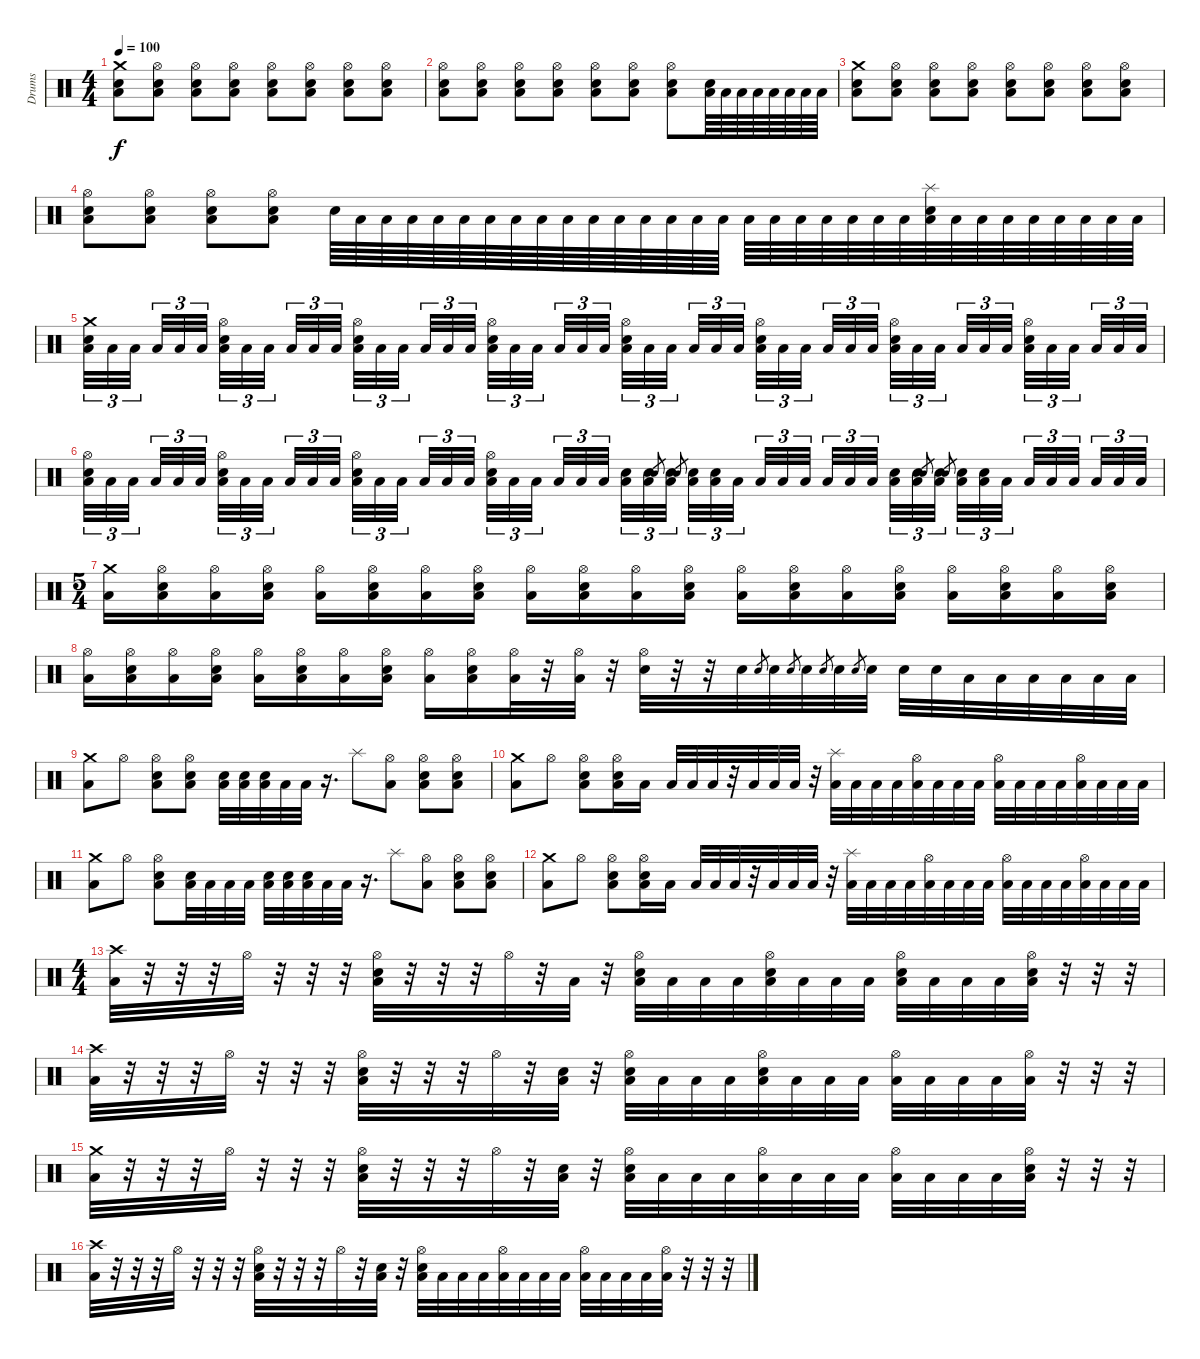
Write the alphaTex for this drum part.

\track ("Drums" "Drums") {instrument percussion}
\staff {score}
\articulation defaults
\ts (4 4)
\tempo 100
\clef neutral
\ks c
("Crash medium (hit)" "Electric Snare (hit)" "Low Floor Tom (hit)").8{dy f} ("Hi-Hat (open)" "Electric Snare (hit)" "Low Floor Tom (hit)").8 ("Hi-Hat (open)" "Electric Snare (hit)" "Low Floor Tom (hit)").8 ("Hi-Hat (open)" "Electric Snare (hit)" "Low Floor Tom (hit)").8 ("Hi-Hat (open)" "Electric Snare (hit)" "Low Floor Tom (hit)").8 ("Hi-Hat (open)" "Electric Snare (hit)" "Low Floor Tom (hit)").8 ("Hi-Hat (open)" "Electric Snare (hit)" "Low Floor Tom (hit)").8 ("Hi-Hat (open)" "Electric Snare (hit)" "Low Floor Tom (hit)").8 |
("Hi-Hat (open)" "Electric Snare (hit)" "Low Floor Tom (hit)").8 ("Hi-Hat (open)" "Electric Snare (hit)" "Low Floor Tom (hit)").8 ("Hi-Hat (open)" "Electric Snare (hit)" "Low Floor Tom (hit)").8 ("Hi-Hat (open)" "Electric Snare (hit)" "Low Floor Tom (hit)").8 ("Hi-Hat (open)" "Electric Snare (hit)" "Low Floor Tom (hit)").8 ("Hi-Hat (open)" "Electric Snare (hit)" "Low Floor Tom (hit)").8 ("Hi-Hat (open)" "Electric Snare (hit)" "Low Floor Tom (hit)").8 ("Electric Snare (hit)" "Low Floor Tom (hit)").64 "Low Floor Tom (hit)".64 "Low Floor Tom (hit)".64 "Low Floor Tom (hit)".64 "Low Floor Tom (hit)".64 "Low Floor Tom (hit)".64 "Low Floor Tom (hit)".64 "Low Floor Tom (hit)".64 |
("Crash medium (hit)" "Electric Snare (hit)" "Low Floor Tom (hit)").8 ("Hi-Hat (open)" "Electric Snare (hit)" "Low Floor Tom (hit)").8 ("Hi-Hat (open)" "Electric Snare (hit)" "Low Floor Tom (hit)").8 ("Hi-Hat (open)" "Electric Snare (hit)" "Low Floor Tom (hit)").8 ("Hi-Hat (open)" "Electric Snare (hit)" "Low Floor Tom (hit)").8 ("Hi-Hat (open)" "Electric Snare (hit)" "Low Floor Tom (hit)").8 ("Hi-Hat (open)" "Electric Snare (hit)" "Low Floor Tom (hit)").8 ("Hi-Hat (open)" "Electric Snare (hit)" "Low Floor Tom (hit)").8 |
("Hi-Hat (open)" "Electric Snare (hit)" "Low Floor Tom (hit)").8 ("Hi-Hat (open)" "Electric Snare (hit)" "Low Floor Tom (hit)").8 ("Hi-Hat (open)" "Electric Snare (hit)" "Low Floor Tom (hit)").8 ("Hi-Hat (open)" "Electric Snare (hit)" "Low Floor Tom (hit)").8 "Electric Snare (hit)".64 "Low Tom (hit)".64 "Low Tom (hit)".64 "Low Floor Tom (hit)".64 "Low Floor Tom (hit)".64 "Low Floor Tom (hit)".64 "Low Floor Tom (hit)".64 "Low Floor Tom (hit)".64 "Low Floor Tom (hit)".64 "Low Floor Tom (hit)".64 "Low Floor Tom (hit)".64 "Low Floor Tom (hit)".64 "Low Floor Tom (hit)".64 "Low Floor Tom (hit)".64 "Low Floor Tom (hit)".64 "Low Floor Tom (hit)".64 "Low Floor Tom (hit)".64 "Low Floor Tom (hit)".64 "Low Floor Tom (hit)".64 "Low Floor Tom (hit)".64 "Low Floor Tom (hit)".64 "Low Floor Tom (hit)".64 "Low Floor Tom (hit)".64 ("Splash (hit)" "Electric Snare (hit)" "Low Floor Tom (hit)").64 "Low Floor Tom (hit)".64 "Low Floor Tom (hit)".64 "Low Floor Tom (hit)".64 "Low Floor Tom (hit)".64 "Low Floor Tom (hit)".64 "Low Floor Tom (hit)".64 "Low Floor Tom (hit)".64 "Low Floor Tom (hit)".64 |
("Crash medium (hit)" "Electric Snare (hit)" "Low Floor Tom (hit)").32{tu (3 2)} "Low Floor Tom (hit)".32{tu (3 2)} "Low Floor Tom (hit)".32{tu (3 2) beam splitsecondary} "Low Floor Tom (hit)".32{tu (3 2)} "Low Floor Tom (hit)".32{tu (3 2)} "Low Floor Tom (hit)".32{tu (3 2) beam splitsecondary} ("Hi-Hat (open)" "Electric Snare (hit)" "Low Floor Tom (hit)").32{tu (3 2)} "Low Floor Tom (hit)".32{tu (3 2)} "Low Floor Tom (hit)".32{tu (3 2) beam splitsecondary} "Low Floor Tom (hit)".32{tu (3 2)} "Low Floor Tom (hit)".32{tu (3 2)} "Low Floor Tom (hit)".32{tu (3 2)} ("Hi-Hat (open)" "Electric Snare (hit)" "Low Floor Tom (hit)").32{tu (3 2)} "Low Floor Tom (hit)".32{tu (3 2)} "Low Floor Tom (hit)".32{tu (3 2) beam splitsecondary} "Low Floor Tom (hit)".32{tu (3 2)} "Low Floor Tom (hit)".32{tu (3 2)} "Low Floor Tom (hit)".32{tu (3 2) beam splitsecondary} ("Hi-Hat (open)" "Electric Snare (hit)" "Low Floor Tom (hit)").32{tu (3 2)} "Low Floor Tom (hit)".32{tu (3 2)} "Low Floor Tom (hit)".32{tu (3 2) beam splitsecondary} "Low Floor Tom (hit)".32{tu (3 2)} "Low Floor Tom (hit)".32{tu (3 2)} "Low Floor Tom (hit)".32{tu (3 2)} ("Hi-Hat (open)" "Electric Snare (hit)" "Low Floor Tom (hit)").32{tu (3 2)} "Low Floor Tom (hit)".32{tu (3 2)} "Low Floor Tom (hit)".32{tu (3 2) beam splitsecondary} "Low Floor Tom (hit)".32{tu (3 2)} "Low Floor Tom (hit)".32{tu (3 2)} "Low Floor Tom (hit)".32{tu (3 2) beam splitsecondary} ("Hi-Hat (open)" "Electric Snare (hit)" "Low Floor Tom (hit)").32{tu (3 2)} "Low Floor Tom (hit)".32{tu (3 2)} "Low Floor Tom (hit)".32{tu (3 2) beam splitsecondary} "Low Floor Tom (hit)".32{tu (3 2)} "Low Floor Tom (hit)".32{tu (3 2)} "Low Floor Tom (hit)".32{tu (3 2)} ("Hi-Hat (open)" "Electric Snare (hit)" "Low Floor Tom (hit)").32{tu (3 2)} "Low Floor Tom (hit)".32{tu (3 2)} "Low Floor Tom (hit)".32{tu (3 2) beam splitsecondary} "Low Floor Tom (hit)".32{tu (3 2)} "Low Floor Tom (hit)".32{tu (3 2)} "Low Floor Tom (hit)".32{tu (3 2) beam splitsecondary} ("Hi-Hat (open)" "Electric Snare (hit)" "Low Floor Tom (hit)").32{tu (3 2)} "Low Floor Tom (hit)".32{tu (3 2)} "Low Floor Tom (hit)".32{tu (3 2) beam splitsecondary} "Low Floor Tom (hit)".32{tu (3 2)} "Low Floor Tom (hit)".32{tu (3 2)} "Low Floor Tom (hit)".32{tu (3 2)} |
("Hi-Hat (open)" "Electric Snare (hit)" "Low Floor Tom (hit)").32{tu (3 2)} "Low Floor Tom (hit)".32{tu (3 2)} "Low Floor Tom (hit)".32{tu (3 2) beam splitsecondary} "Low Floor Tom (hit)".32{tu (3 2)} "Low Floor Tom (hit)".32{tu (3 2)} "Low Floor Tom (hit)".32{tu (3 2) beam splitsecondary} ("Hi-Hat (open)" "Electric Snare (hit)" "Low Floor Tom (hit)").32{tu (3 2)} "Low Floor Tom (hit)".32{tu (3 2)} "Low Floor Tom (hit)".32{tu (3 2) beam splitsecondary} "Low Floor Tom (hit)".32{tu (3 2)} "Low Floor Tom (hit)".32{tu (3 2)} "Low Floor Tom (hit)".32{tu (3 2)} ("Hi-Hat (open)" "Electric Snare (hit)" "Low Floor Tom (hit)").32{tu (3 2)} "Low Floor Tom (hit)".32{tu (3 2)} "Low Floor Tom (hit)".32{tu (3 2) beam splitsecondary} "Low Floor Tom (hit)".32{tu (3 2)} "Low Floor Tom (hit)".32{tu (3 2)} "Low Floor Tom (hit)".32{tu (3 2) beam splitsecondary} ("Hi-Hat (open)" "Electric Snare (hit)" "Low Floor Tom (hit)").32{tu (3 2)} "Low Floor Tom (hit)".32{tu (3 2)} "Low Floor Tom (hit)".32{tu (3 2) beam splitsecondary} "Low Floor Tom (hit)".32{tu (3 2)} "Low Floor Tom (hit)".32{tu (3 2)} "Low Floor Tom (hit)".32{tu (3 2)} ("Electric Snare (hit)" "Low Floor Tom (hit)").32{tu (3 2)} ("Electric Snare (hit)" "Low Floor Tom (hit)").32{tu (3 2)} "Electric Snare (hit)".8{gr} ("Electric Snare (hit)" "Low Floor Tom (hit)").32{tu (3 2)} "Electric Snare (hit)".8{gr beam splitsecondary} ("Electric Snare (hit)" "Low Floor Tom (hit)").32{tu (3 2)} ("Electric Snare (hit)" "Low Floor Tom (hit)").32{tu (3 2)} "Low Floor Tom (hit)".32{tu (3 2) beam splitsecondary} "Low Floor Tom (hit)".32{tu (3 2)} "Low Floor Tom (hit)".32{tu (3 2)} "Low Floor Tom (hit)".32{tu (3 2) beam splitsecondary} "Low Floor Tom (hit)".32{tu (3 2)} "Low Floor Tom (hit)".32{tu (3 2)} "Low Floor Tom (hit)".32{tu (3 2)} ("Electric Snare (hit)" "Low Floor Tom (hit)").32{tu (3 2)} ("Electric Snare (hit)" "Low Floor Tom (hit)").32{tu (3 2)} "Electric Snare (hit)".8{gr} ("Electric Snare (hit)" "Low Floor Tom (hit)").32{tu (3 2)} "Electric Snare (hit)".8{gr beam splitsecondary} ("Electric Snare (hit)" "Low Floor Tom (hit)").32{tu (3 2)} ("Electric Snare (hit)" "Low Floor Tom (hit)").32{tu (3 2)} "Low Floor Tom (hit)".32{tu (3 2) beam splitsecondary} "Low Floor Tom (hit)".32{tu (3 2)} "Low Floor Tom (hit)".32{tu (3 2)} "Low Floor Tom (hit)".32{tu (3 2) beam splitsecondary} "Low Floor Tom (hit)".32{tu (3 2)} "Low Floor Tom (hit)".32{tu (3 2)} "Low Floor Tom (hit)".32{tu (3 2)} |
\ts (5 4)
("Crash medium (hit)" "Low Floor Tom (hit)").16 ("Hi-Hat (open)" "Electric Snare (hit)" "Low Floor Tom (hit)").16 ("Hi-Hat (open)" "Low Floor Tom (hit)").16 ("Hi-Hat (open)" "Electric Snare (hit)" "Low Floor Tom (hit)").16 ("Hi-Hat (open)" "Low Floor Tom (hit)").16 ("Hi-Hat (open)" "Electric Snare (hit)" "Low Floor Tom (hit)").16 ("Hi-Hat (open)" "Low Floor Tom (hit)").16 ("Hi-Hat (open)" "Electric Snare (hit)" "Low Floor Tom (hit)").16 ("Hi-Hat (open)" "Low Floor Tom (hit)").16 ("Hi-Hat (open)" "Electric Snare (hit)" "Low Floor Tom (hit)").16 ("Hi-Hat (open)" "Low Floor Tom (hit)").16 ("Hi-Hat (open)" "Electric Snare (hit)" "Low Floor Tom (hit)").16 ("Hi-Hat (open)" "Low Floor Tom (hit)").16 ("Hi-Hat (open)" "Electric Snare (hit)" "Low Floor Tom (hit)").16 ("Hi-Hat (open)" "Low Floor Tom (hit)").16 ("Hi-Hat (open)" "Electric Snare (hit)" "Low Floor Tom (hit)").16 ("Hi-Hat (open)" "Low Floor Tom (hit)").16 ("Hi-Hat (open)" "Electric Snare (hit)" "Low Floor Tom (hit)").16 ("Hi-Hat (open)" "Low Floor Tom (hit)").16 ("Hi-Hat (open)" "Electric Snare (hit)" "Low Floor Tom (hit)").16 |
("Hi-Hat (open)" "Low Floor Tom (hit)").16 ("Hi-Hat (open)" "Electric Snare (hit)" "Low Floor Tom (hit)").16 ("Hi-Hat (open)" "Low Floor Tom (hit)").16 ("Hi-Hat (open)" "Electric Snare (hit)" "Low Floor Tom (hit)").16 ("Hi-Hat (open)" "Low Floor Tom (hit)").16 ("Hi-Hat (open)" "Electric Snare (hit)" "Low Floor Tom (hit)").16 ("Hi-Hat (open)" "Low Floor Tom (hit)").16 ("Hi-Hat (open)" "Electric Snare (hit)" "Low Floor Tom (hit)").16 ("Hi-Hat (open)" "Low Floor Tom (hit)").16 ("Hi-Hat (open)" "Electric Snare (hit)" "Low Floor Tom (hit)").16 ("Hi-Hat (open)" "Low Floor Tom (hit)").32 r.32 ("Hi-Hat (open)" "Low Floor Tom (hit)").32 r.32 ("Hi-Hat (open)" "Electric Snare (hit)").32 r.32 r.32 "Electric Snare (hit)".32 "Electric Snare (hit)".8{gr} "Electric Snare (hit)".32 "Electric Snare (hit)".8{gr} "Electric Snare (hit)".32 "Electric Snare (hit)".8{gr} "Electric Snare (hit)".32 "Electric Snare (hit)".8{gr} "Electric Snare (hit)".32 "Electric Snare (hit)".32 "Electric Snare (hit)".32 "Low Floor Tom (hit)".32 "Low Floor Tom (hit)".32 "Low Floor Tom (hit)".32 "Low Floor Tom (hit)".32 "Low Floor Tom (hit)".32 "Low Floor Tom (hit)".32 |
("Crash medium (hit)" "Low Floor Tom (hit)").8 "Hi-Hat (open)".8 ("Hi-Hat (open)" "Electric Snare (hit)" "Low Floor Tom (hit)").8 ("Hi-Hat (open)" "Electric Snare (hit)" "Low Floor Tom (hit)").8 ("Electric Snare (hit)" "Low Floor Tom (hit)").32 ("Electric Snare (hit)" "Low Floor Tom (hit)").32 ("Electric Snare (hit)" "Low Floor Tom (hit)").32 "Low Floor Tom (hit)".32 "Low Floor Tom (hit)".32 r.16{d} "Splash (hit)".8 ("Hi-Hat (open)" "Low Floor Tom (hit)").8 ("Hi-Hat (open)" "Electric Snare (hit)" "Low Floor Tom (hit)").8 ("Hi-Hat (open)" "Electric Snare (hit)" "Low Floor Tom (hit)").8 |
("Crash medium (hit)" "Low Floor Tom (hit)").8 "Hi-Hat (open)".8 ("Hi-Hat (open)" "Electric Snare (hit)" "Low Floor Tom (hit)").8 ("Hi-Hat (open)" "Electric Snare (hit)" "Low Floor Tom (hit)").16 "Low Floor Tom (hit)".16 "Low Floor Tom (hit)".32 "Low Floor Tom (hit)".32 "Low Floor Tom (hit)".32 r.32 "Low Floor Tom (hit)".32 "Low Floor Tom (hit)".32 "Low Floor Tom (hit)".32 r.32 ("Splash (hit)" "Low Floor Tom (hit)").32 "Low Floor Tom (hit)".32 "Low Floor Tom (hit)".32 "Low Floor Tom (hit)".32 ("Hi-Hat (open)" "Low Floor Tom (hit)").32 "Low Floor Tom (hit)".32 "Low Floor Tom (hit)".32 "Low Floor Tom (hit)".32 ("Hi-Hat (open)" "Low Floor Tom (hit)").32 "Low Floor Tom (hit)".32 "Low Floor Tom (hit)".32 "Low Floor Tom (hit)".32 ("Hi-Hat (open)" "Low Floor Tom (hit)").32 "Low Floor Tom (hit)".32 "Low Floor Tom (hit)".32 "Low Floor Tom (hit)".32 |
("Crash medium (hit)" "Low Floor Tom (hit)").8 "Hi-Hat (open)".8 ("Hi-Hat (open)" "Electric Snare (hit)" "Low Floor Tom (hit)").8 ("Electric Snare (hit)" "Low Floor Tom (hit)").32 "Low Floor Tom (hit)".32 "Low Floor Tom (hit)".32 "Low Floor Tom (hit)".32 ("Electric Snare (hit)" "Low Floor Tom (hit)").32 ("Electric Snare (hit)" "Low Floor Tom (hit)").32 ("Electric Snare (hit)" "Low Floor Tom (hit)").32 "Low Floor Tom (hit)".32 "Low Floor Tom (hit)".32 r.16{d} "Splash (hit)".8 ("Hi-Hat (open)" "Low Floor Tom (hit)").8 ("Hi-Hat (open)" "Electric Snare (hit)" "Low Floor Tom (hit)").8 ("Hi-Hat (open)" "Electric Snare (hit)" "Low Floor Tom (hit)").8 |
("Crash medium (hit)" "Low Floor Tom (hit)").8 "Hi-Hat (open)".8 ("Hi-Hat (open)" "Electric Snare (hit)" "Low Floor Tom (hit)").8 ("Hi-Hat (open)" "Electric Snare (hit)" "Low Floor Tom (hit)").16 "Low Floor Tom (hit)".16 "Low Floor Tom (hit)".32 "Low Floor Tom (hit)".32 "Low Floor Tom (hit)".32 r.32 "Low Floor Tom (hit)".32 "Low Floor Tom (hit)".32 "Low Floor Tom (hit)".32 r.32 ("Splash (hit)" "Low Floor Tom (hit)").32 "Low Floor Tom (hit)".32 "Low Floor Tom (hit)".32 "Low Floor Tom (hit)".32 ("Hi-Hat (open)" "Low Floor Tom (hit)").32 "Low Floor Tom (hit)".32 "Low Floor Tom (hit)".32 "Low Floor Tom (hit)".32 ("Hi-Hat (open)" "Low Floor Tom (hit)").32 "Low Floor Tom (hit)".32 "Low Floor Tom (hit)".32 "Low Floor Tom (hit)".32 ("Hi-Hat (open)" "Low Floor Tom (hit)").32 "Low Floor Tom (hit)".32 "Low Floor Tom (hit)".32 "Low Floor Tom (hit)".32 |
\ts (4 4)
("Crash high (hit)" "Low Floor Tom (hit)").32 r.32 r.32 r.32 "Hi-Hat (open)".32 r.32 r.32 r.32 ("Hi-Hat (open)" "Electric Snare (hit)" "Low Floor Tom (hit)").32 r.32 r.32 r.32 "Hi-Hat (open)".32 r.32 "Low Floor Tom (hit)".32 r.32 ("Hi-Hat (open)" "Electric Snare (hit)" "Low Floor Tom (hit)").32 "Low Floor Tom (hit)".32 "Low Floor Tom (hit)".32 "Low Floor Tom (hit)".32 ("Hi-Hat (open)" "Electric Snare (hit)" "Low Floor Tom (hit)").32 "Low Floor Tom (hit)".32 "Low Floor Tom (hit)".32 "Low Floor Tom (hit)".32 ("Hi-Hat (open)" "Electric Snare (hit)" "Low Floor Tom (hit)").32 "Low Floor Tom (hit)".32 "Low Floor Tom (hit)".32 "Low Floor Tom (hit)".32 ("Hi-Hat (open)" "Electric Snare (hit)" "Low Floor Tom (hit)").32 r.32 r.32 r.32 |
("Crash high (hit)" "Low Floor Tom (hit)").32 r.32 r.32 r.32 "Hi-Hat (open)".32 r.32 r.32 r.32 ("Hi-Hat (open)" "Electric Snare (hit)" "Low Floor Tom (hit)").32 r.32 r.32 r.32 "Hi-Hat (open)".32 r.32 ("Electric Snare (hit)" "Low Floor Tom (hit)").32 r.32 ("Hi-Hat (open)" "Electric Snare (hit)" "Low Floor Tom (hit)").32 "Low Floor Tom (hit)".32 "Low Floor Tom (hit)".32 "Low Floor Tom (hit)".32 ("Hi-Hat (open)" "Electric Snare (hit)" "Low Floor Tom (hit)").32 "Low Floor Tom (hit)".32 "Low Floor Tom (hit)".32 "Low Floor Tom (hit)".32 ("Hi-Hat (open)" "Low Floor Tom (hit)").32 "Low Floor Tom (hit)".32 "Low Floor Tom (hit)".32 "Low Floor Tom (hit)".32 ("Hi-Hat (open)" "Low Floor Tom (hit)").32 r.32 r.32 r.32 |
("Crash medium (hit)" "Low Floor Tom (hit)").32 r.32 r.32 r.32 "Hi-Hat (open)".32 r.32 r.32 r.32 ("Hi-Hat (open)" "Electric Snare (hit)" "Low Floor Tom (hit)").32 r.32 r.32 r.32 "Hi-Hat (open)".32 r.32 ("Electric Snare (hit)" "Low Floor Tom (hit)").32 r.32 ("Hi-Hat (open)" "Electric Snare (hit)" "Low Floor Tom (hit)").32 "Low Floor Tom (hit)".32 "Low Floor Tom (hit)".32 "Low Floor Tom (hit)".32 ("Hi-Hat (open)" "Low Floor Tom (hit)").32 "Low Floor Tom (hit)".32 "Low Floor Tom (hit)".32 "Low Floor Tom (hit)".32 ("Hi-Hat (open)" "Low Floor Tom (hit)").32 "Low Floor Tom (hit)".32 "Low Floor Tom (hit)".32 "Low Floor Tom (hit)".32 ("Hi-Hat (open)" "Electric Snare (hit)" "Low Floor Tom (hit)").32 r.32 r.32 r.32 |
("Crash high (hit)" "Low Floor Tom (hit)").32 r.32 r.32 r.32 "Hi-Hat (open)".32 r.32 r.32 r.32 ("Hi-Hat (open)" "Electric Snare (hit)" "Low Floor Tom (hit)").32 r.32 r.32 r.32 "Hi-Hat (open)".32 r.32 ("Electric Snare (hit)" "Low Floor Tom (hit)").32 r.32 ("Hi-Hat (open)" "Electric Snare (hit)" "Low Floor Tom (hit)").32 "Low Floor Tom (hit)".32 "Low Floor Tom (hit)".32 "Low Floor Tom (hit)".32 ("Hi-Hat (open)" "Low Floor Tom (hit)").32 "Low Floor Tom (hit)".32 "Low Floor Tom (hit)".32 "Low Floor Tom (hit)".32 ("Hi-Hat (open)" "Low Floor Tom (hit)").32 "Low Floor Tom (hit)".32 "Low Floor Tom (hit)".32 "Low Floor Tom (hit)".32 ("Hi-Hat (open)" "Low Floor Tom (hit)").32 r.32 r.32 r.32
